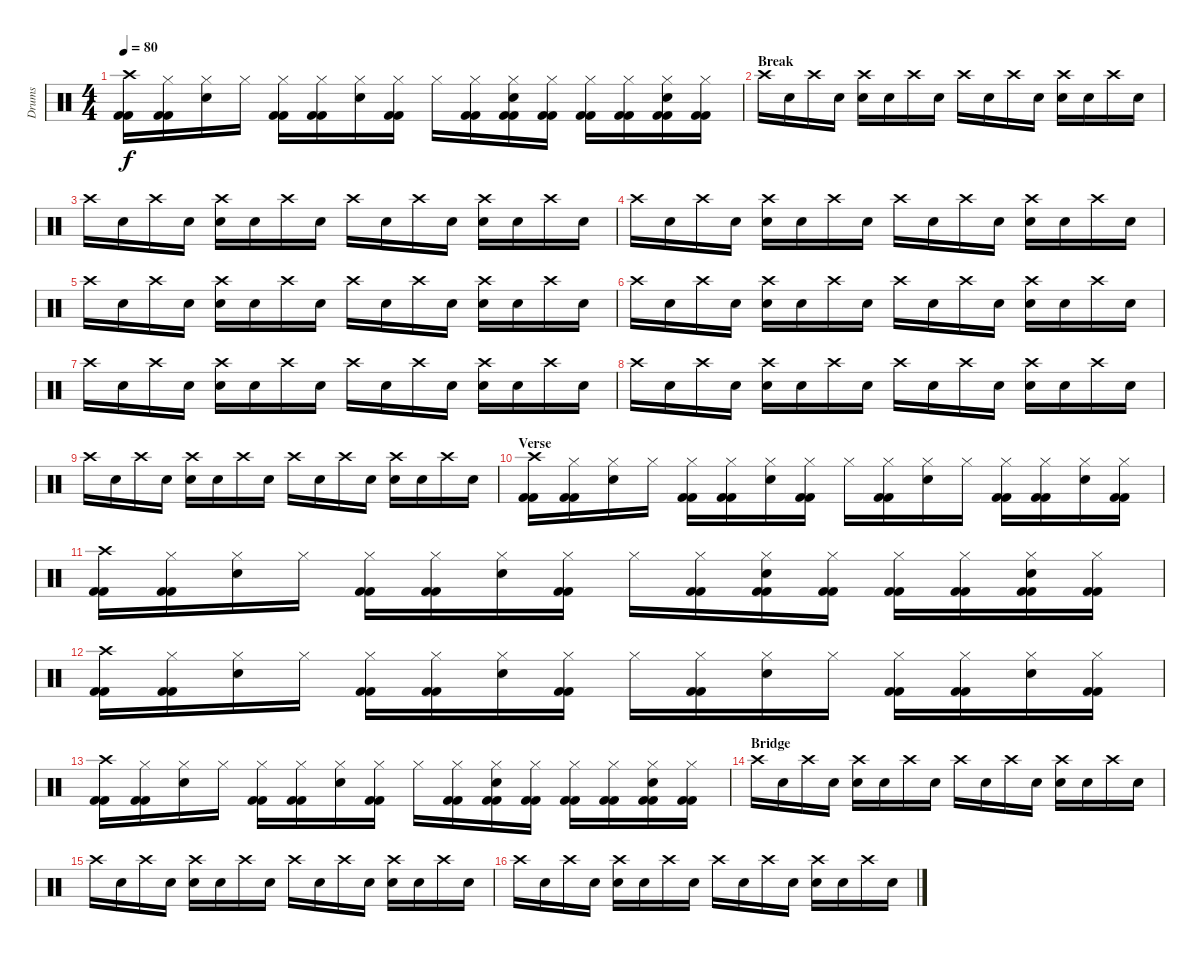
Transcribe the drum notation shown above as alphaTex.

\track ("Drums" "Drums") {instrument percussion}
\staff {score}
\articulation defaults
\ts (4 4)
\tempo 80
\clef neutral
\ks c
("Crash high (hit)" "Kick (hit) 2" "Kick (hit) 2").16{dy f} ("Hi-Hat (closed)" "Kick (hit) 2" "Kick (hit) 2").16 ("Hi-Hat (closed)" "Electric Snare (hit)").16 "Hi-Hat (closed)".16 ("Hi-Hat (closed)" "Kick (hit) 2" "Kick (hit) 2").16 ("Hi-Hat (closed)" "Kick (hit) 2" "Kick (hit) 2").16 ("Hi-Hat (closed)" "Electric Snare (hit)").16 ("Hi-Hat (closed)" "Kick (hit) 2" "Kick (hit) 2").16 "Hi-Hat (closed)".16 ("Hi-Hat (closed)" "Kick (hit) 2" "Kick (hit) 2").16 ("Hi-Hat (closed)" "Electric Snare (hit)" "Kick (hit) 2" "Kick (hit) 2").16 ("Hi-Hat (closed)" "Kick (hit) 2" "Kick (hit) 2").16 ("Hi-Hat (closed)" "Kick (hit) 2" "Kick (hit) 2").16 ("Hi-Hat (closed)" "Kick (hit) 2" "Kick (hit) 2").16 ("Hi-Hat (closed)" "Electric Snare (hit)" "Kick (hit) 2" "Kick (hit) 2").16 ("Hi-Hat (closed)" "Kick (hit) 2" "Kick (hit) 2").16 |
\section ("" "Break")
"Crash high (hit)".16 "Snare (hit)"{x}.16 "Crash high (hit)".16 "Snare (hit)"{x}.16 ("Crash high (hit)" "Electric Snare (hit)").16 "Snare (hit)"{x}.16 "Crash high (hit)".16 "Snare (hit)"{x}.16 "Crash high (hit)".16 "Snare (hit)"{x}.16 "Crash high (hit)".16 "Snare (hit)"{x}.16 ("Crash high (hit)" "Electric Snare (hit)").16 "Snare (hit)"{x}.16 "Crash high (hit)".16 "Snare (hit)"{x}.16 |
"Crash high (hit)".16 "Snare (hit)"{x}.16 "Crash high (hit)".16 "Snare (hit)"{x}.16 ("Crash high (hit)" "Electric Snare (hit)").16 "Snare (hit)"{x}.16 "Crash high (hit)".16 "Snare (hit)"{x}.16 "Crash high (hit)".16 "Snare (hit)"{x}.16 "Crash high (hit)".16 "Snare (hit)"{x}.16 ("Crash high (hit)" "Electric Snare (hit)").16 "Snare (hit)"{x}.16 "Crash high (hit)".16 "Snare (hit)"{x}.16 |
"Crash high (hit)".16 "Snare (hit)"{x}.16 "Crash high (hit)".16 "Snare (hit)"{x}.16 ("Crash high (hit)" "Electric Snare (hit)").16 "Snare (hit)"{x}.16 "Crash high (hit)".16 "Snare (hit)"{x}.16 "Crash high (hit)".16 "Snare (hit)"{x}.16 "Crash high (hit)".16 "Snare (hit)"{x}.16 ("Crash high (hit)" "Electric Snare (hit)").16 "Snare (hit)"{x}.16 "Crash high (hit)".16 "Snare (hit)"{x}.16 |
"Crash high (hit)".16 "Snare (hit)"{x}.16 "Crash high (hit)".16 "Snare (hit)"{x}.16 ("Crash high (hit)" "Electric Snare (hit)").16 "Snare (hit)"{x}.16 "Crash high (hit)".16 "Snare (hit)"{x}.16 "Crash high (hit)".16 "Snare (hit)"{x}.16 "Crash high (hit)".16 "Snare (hit)"{x}.16 ("Crash high (hit)" "Electric Snare (hit)").16 "Snare (hit)"{x}.16 "Crash high (hit)".16 "Snare (hit)"{x}.16 |
"Crash high (hit)".16 "Snare (hit)"{x}.16 "Crash high (hit)".16 "Snare (hit)"{x}.16 ("Crash high (hit)" "Electric Snare (hit)").16 "Snare (hit)"{x}.16 "Crash high (hit)".16 "Snare (hit)"{x}.16 "Crash high (hit)".16 "Snare (hit)"{x}.16 "Crash high (hit)".16 "Snare (hit)"{x}.16 ("Crash high (hit)" "Electric Snare (hit)").16 "Snare (hit)"{x}.16 "Crash high (hit)".16 "Snare (hit)"{x}.16 |
"Crash high (hit)".16 "Snare (hit)"{x}.16 "Crash high (hit)".16 "Snare (hit)"{x}.16 ("Crash high (hit)" "Electric Snare (hit)").16 "Snare (hit)"{x}.16 "Crash high (hit)".16 "Snare (hit)"{x}.16 "Crash high (hit)".16 "Snare (hit)"{x}.16 "Crash high (hit)".16 "Snare (hit)"{x}.16 ("Crash high (hit)" "Electric Snare (hit)").16 "Snare (hit)"{x}.16 "Crash high (hit)".16 "Snare (hit)"{x}.16 |
"Crash high (hit)".16 "Snare (hit)"{x}.16 "Crash high (hit)".16 "Snare (hit)"{x}.16 ("Crash high (hit)" "Electric Snare (hit)").16 "Snare (hit)"{x}.16 "Crash high (hit)".16 "Snare (hit)"{x}.16 "Crash high (hit)".16 "Snare (hit)"{x}.16 "Crash high (hit)".16 "Snare (hit)"{x}.16 ("Crash high (hit)" "Electric Snare (hit)").16 "Snare (hit)"{x}.16 "Crash high (hit)".16 "Snare (hit)"{x}.16 |
"Crash high (hit)".16 "Snare (hit)"{x}.16 "Crash high (hit)".16 "Snare (hit)"{x}.16 ("Crash high (hit)" "Electric Snare (hit)").16 "Snare (hit)"{x}.16 "Crash high (hit)".16 "Snare (hit)"{x}.16 "Crash high (hit)".16 "Snare (hit)"{x}.16 "Crash high (hit)".16 "Snare (hit)"{x}.16 ("Crash high (hit)" "Electric Snare (hit)").16 "Snare (hit)"{x}.16 "Crash high (hit)".16 "Snare (hit)"{x}.16 |
\section ("" "Verse")
("Crash high (hit)" "Kick (hit) 2" "Kick (hit) 2").16 ("Hi-Hat (closed)" "Kick (hit) 2" "Kick (hit) 2").16 ("Hi-Hat (closed)" "Electric Snare (hit)").16 "Hi-Hat (closed)".16 ("Hi-Hat (closed)" "Kick (hit) 2" "Kick (hit) 2").16 ("Hi-Hat (closed)" "Kick (hit) 2" "Kick (hit) 2").16 ("Hi-Hat (closed)" "Electric Snare (hit)").16 ("Hi-Hat (closed)" "Kick (hit) 2" "Kick (hit) 2").16 "Hi-Hat (closed)".16 ("Hi-Hat (closed)" "Kick (hit) 2" "Kick (hit) 2").16 ("Hi-Hat (closed)" "Electric Snare (hit)").16 "Hi-Hat (closed)".16 ("Hi-Hat (closed)" "Kick (hit) 2" "Kick (hit) 2").16 ("Hi-Hat (closed)" "Kick (hit) 2" "Kick (hit) 2").16 ("Hi-Hat (closed)" "Electric Snare (hit)").16 ("Hi-Hat (closed)" "Kick (hit) 2" "Kick (hit) 2").16 |
("Crash high (hit)" "Kick (hit) 2" "Kick (hit) 2").16 ("Hi-Hat (closed)" "Kick (hit) 2" "Kick (hit) 2").16 ("Hi-Hat (closed)" "Electric Snare (hit)").16 "Hi-Hat (closed)".16 ("Hi-Hat (closed)" "Kick (hit) 2" "Kick (hit) 2").16 ("Hi-Hat (closed)" "Kick (hit) 2" "Kick (hit) 2").16 ("Hi-Hat (closed)" "Electric Snare (hit)").16 ("Hi-Hat (closed)" "Kick (hit) 2" "Kick (hit) 2").16 "Hi-Hat (closed)".16 ("Hi-Hat (closed)" "Kick (hit) 2" "Kick (hit) 2").16 ("Hi-Hat (closed)" "Electric Snare (hit)" "Kick (hit) 2" "Kick (hit) 2").16 ("Hi-Hat (closed)" "Kick (hit) 2" "Kick (hit) 2").16 ("Hi-Hat (closed)" "Kick (hit) 2" "Kick (hit) 2").16 ("Hi-Hat (closed)" "Kick (hit) 2" "Kick (hit) 2").16 ("Hi-Hat (closed)" "Electric Snare (hit)" "Kick (hit) 2" "Kick (hit) 2").16 ("Hi-Hat (closed)" "Kick (hit) 2" "Kick (hit) 2").16 |
("Crash high (hit)" "Kick (hit) 2" "Kick (hit) 2").16 ("Hi-Hat (closed)" "Kick (hit) 2" "Kick (hit) 2").16 ("Hi-Hat (closed)" "Electric Snare (hit)").16 "Hi-Hat (closed)".16 ("Hi-Hat (closed)" "Kick (hit) 2" "Kick (hit) 2").16 ("Hi-Hat (closed)" "Kick (hit) 2" "Kick (hit) 2").16 ("Hi-Hat (closed)" "Electric Snare (hit)").16 ("Hi-Hat (closed)" "Kick (hit) 2" "Kick (hit) 2").16 "Hi-Hat (closed)".16 ("Hi-Hat (closed)" "Kick (hit) 2" "Kick (hit) 2").16 ("Hi-Hat (closed)" "Electric Snare (hit)").16 "Hi-Hat (closed)".16 ("Hi-Hat (closed)" "Kick (hit) 2" "Kick (hit) 2").16 ("Hi-Hat (closed)" "Kick (hit) 2" "Kick (hit) 2").16 ("Hi-Hat (closed)" "Electric Snare (hit)").16 ("Hi-Hat (closed)" "Kick (hit) 2" "Kick (hit) 2").16 |
("Crash high (hit)" "Kick (hit) 2" "Kick (hit) 2").16 ("Hi-Hat (closed)" "Kick (hit) 2" "Kick (hit) 2").16 ("Hi-Hat (closed)" "Electric Snare (hit)").16 "Hi-Hat (closed)".16 ("Hi-Hat (closed)" "Kick (hit) 2" "Kick (hit) 2").16 ("Hi-Hat (closed)" "Kick (hit) 2" "Kick (hit) 2").16 ("Hi-Hat (closed)" "Electric Snare (hit)").16 ("Hi-Hat (closed)" "Kick (hit) 2" "Kick (hit) 2").16 "Hi-Hat (closed)".16 ("Hi-Hat (closed)" "Kick (hit) 2" "Kick (hit) 2").16 ("Hi-Hat (closed)" "Electric Snare (hit)" "Kick (hit) 2" "Kick (hit) 2").16 ("Hi-Hat (closed)" "Kick (hit) 2" "Kick (hit) 2").16 ("Hi-Hat (closed)" "Kick (hit) 2" "Kick (hit) 2").16 ("Hi-Hat (closed)" "Kick (hit) 2" "Kick (hit) 2").16 ("Hi-Hat (closed)" "Electric Snare (hit)" "Kick (hit) 2" "Kick (hit) 2").16 ("Hi-Hat (closed)" "Kick (hit) 2" "Kick (hit) 2").16 |
\section ("" "Bridge")
"Crash high (hit)".16 "Snare (hit)"{x}.16 "Crash high (hit)".16 "Snare (hit)"{x}.16 ("Crash high (hit)" "Electric Snare (hit)").16 "Snare (hit)"{x}.16 "Crash high (hit)".16 "Snare (hit)"{x}.16 "Crash high (hit)".16 "Snare (hit)"{x}.16 "Crash high (hit)".16 "Snare (hit)"{x}.16 ("Crash high (hit)" "Electric Snare (hit)").16 "Snare (hit)"{x}.16 "Crash high (hit)".16 "Snare (hit)"{x}.16 |
"Crash high (hit)".16 "Snare (hit)"{x}.16 "Crash high (hit)".16 "Snare (hit)"{x}.16 ("Crash high (hit)" "Electric Snare (hit)").16 "Snare (hit)"{x}.16 "Crash high (hit)".16 "Snare (hit)"{x}.16 "Crash high (hit)".16 "Snare (hit)"{x}.16 "Crash high (hit)".16 "Snare (hit)"{x}.16 ("Crash high (hit)" "Electric Snare (hit)").16 "Snare (hit)"{x}.16 "Crash high (hit)".16 "Snare (hit)"{x}.16 |
"Crash high (hit)".16 "Snare (hit)"{x}.16 "Crash high (hit)".16 "Snare (hit)"{x}.16 ("Crash high (hit)" "Electric Snare (hit)").16 "Snare (hit)"{x}.16 "Crash high (hit)".16 "Snare (hit)"{x}.16 "Crash high (hit)".16 "Snare (hit)"{x}.16 "Crash high (hit)".16 "Snare (hit)"{x}.16 ("Crash high (hit)" "Electric Snare (hit)").16 "Snare (hit)"{x}.16 "Crash high (hit)".16 "Snare (hit)"{x}.16
